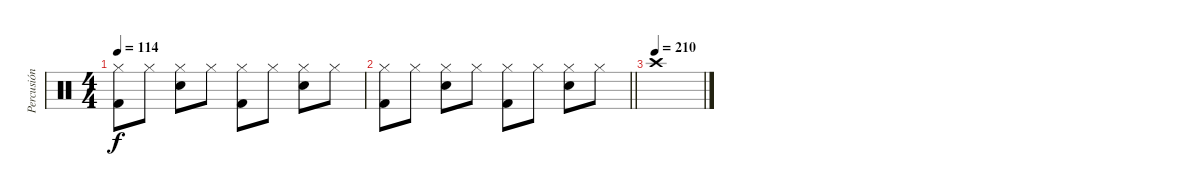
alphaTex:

\track ("Percusión" "Percusión") {instrument percussion}
\staff {score}
\articulation defaults
\ts (4 4)
\tempo 114
\clef neutral
\ks c
("Hi-Hat (closed)" "Kick (hit) 2").8{dy f} "Hi-Hat (closed)".8 ("Hi-Hat (closed)" "Electric Snare (hit)").8 "Hi-Hat (closed)".8 ("Hi-Hat (closed)" "Kick (hit) 2").8 "Hi-Hat (closed)".8 ("Hi-Hat (closed)" "Electric Snare (hit)").8 "Hi-Hat (closed)".8 |
\barLineRight lightlight
("Hi-Hat (closed)" "Kick (hit) 2").8 "Hi-Hat (closed)".8 ("Hi-Hat (closed)" "Electric Snare (hit)").8 "Hi-Hat (closed)".8 ("Hi-Hat (closed)" "Kick (hit) 2").8 "Hi-Hat (closed)".8 ("Hi-Hat (closed)" "Electric Snare (hit)").8 "Hi-Hat (closed)".8 |
\tempo (210)
"Crash high (hit)".1
